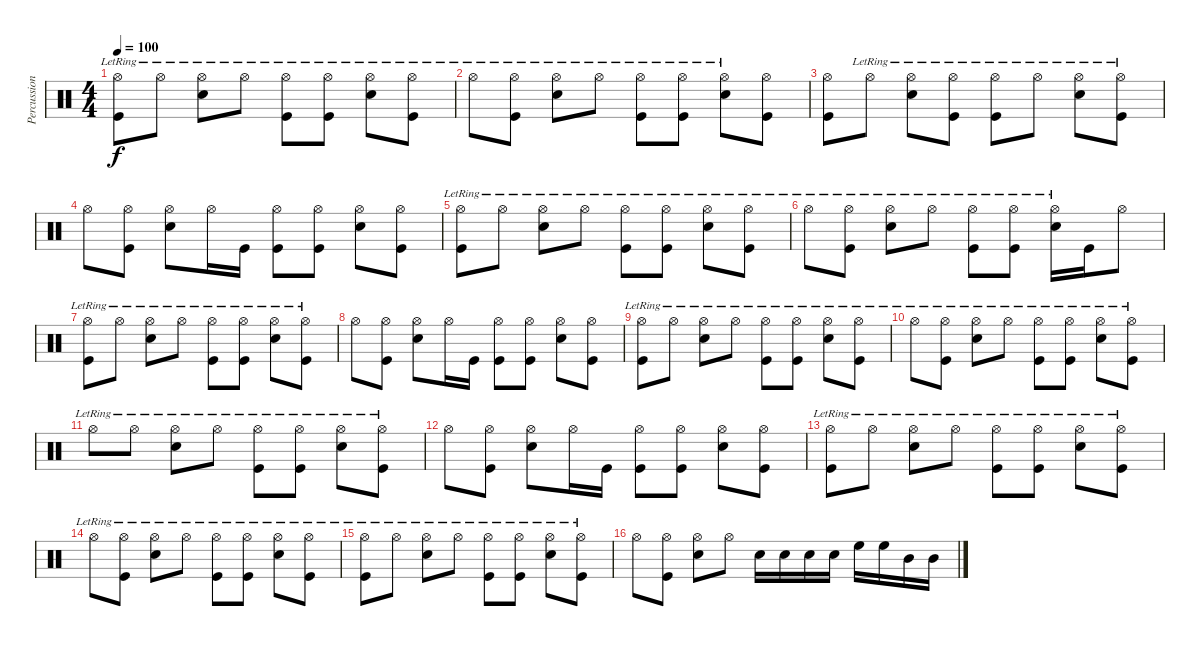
\track ("Percussion" "Percussion") {instrument percussion}
\staff {score}
\articulation defaults
\ts (4 4)
\tempo 100
\clef neutral
\ks c
("Hi-Hat (open)"{lr} "Kick (hit)").8{dy f} "Hi-Hat (open)"{lr}.8 ("Hi-Hat (open)"{lr} "Electric Snare (hit)").8 "Hi-Hat (open)"{lr}.8 ("Hi-Hat (open)"{lr} "Kick (hit)").8 ("Hi-Hat (open)"{lr} "Kick (hit)").8 ("Hi-Hat (open)"{lr} "Electric Snare (hit)").8 ("Hi-Hat (open)"{lr} "Kick (hit)").8 |
"Hi-Hat (open)"{lr}.8 ("Hi-Hat (open)"{lr} "Kick (hit)").8 ("Hi-Hat (open)"{lr} "Electric Snare (hit)").8 "Hi-Hat (open)"{lr}.8 ("Hi-Hat (open)"{lr} "Kick (hit)").8 ("Hi-Hat (open)"{lr} "Kick (hit)").8 ("Hi-Hat (open)"{lr} "Electric Snare (hit)").8 ("Hi-Hat (open)" "Kick (hit)").8 |
("Hi-Hat (open)" "Kick (hit)").8 "Hi-Hat (open)"{lr}.8 ("Hi-Hat (open)"{lr} "Electric Snare (hit)").8 ("Hi-Hat (open)"{lr} "Kick (hit)").8 ("Hi-Hat (open)"{lr} "Kick (hit)").8 "Hi-Hat (open)"{lr}.8 ("Hi-Hat (open)"{lr} "Electric Snare (hit)").8 ("Hi-Hat (open)"{lr} "Kick (hit)").8 |
"Hi-Hat (open)".8 ("Hi-Hat (open)" "Kick (hit)").8 ("Hi-Hat (open)" "Electric Snare (hit)").8 "Hi-Hat (open)".16 "Kick (hit)".16 ("Hi-Hat (open)" "Kick (hit)").8 ("Hi-Hat (open)" "Kick (hit)").8 ("Hi-Hat (open)" "Electric Snare (hit)").8 ("Hi-Hat (open)" "Kick (hit)").8 |
("Hi-Hat (open)"{lr} "Kick (hit)").8 "Hi-Hat (open)"{lr}.8 ("Hi-Hat (open)"{lr} "Electric Snare (hit)").8 "Hi-Hat (open)"{lr}.8 ("Hi-Hat (open)"{lr} "Kick (hit)").8 ("Hi-Hat (open)"{lr} "Kick (hit)").8 ("Hi-Hat (open)"{lr} "Electric Snare (hit)").8 ("Hi-Hat (open)"{lr} "Kick (hit)").8 |
"Hi-Hat (open)"{lr}.8 ("Hi-Hat (open)"{lr} "Kick (hit)").8 ("Hi-Hat (open)"{lr} "Electric Snare (hit)").8 "Hi-Hat (open)"{lr}.8 ("Hi-Hat (open)"{lr} "Kick (hit)").8 ("Hi-Hat (open)"{lr} "Kick (hit)").8 ("Hi-Hat (open)"{lr} "Electric Snare (hit)").16 "Kick (hit)".16 "Hi-Hat (open)".8 |
("Hi-Hat (open)"{lr} "Kick (hit)").8 "Hi-Hat (open)"{lr}.8 ("Hi-Hat (open)"{lr} "Electric Snare (hit)").8 "Hi-Hat (open)"{lr}.8 ("Hi-Hat (open)"{lr} "Kick (hit)").8 ("Hi-Hat (open)"{lr} "Kick (hit)").8 ("Hi-Hat (open)"{lr} "Electric Snare (hit)").8 ("Hi-Hat (open)"{lr} "Kick (hit)").8 |
"Hi-Hat (open)".8 ("Hi-Hat (open)" "Kick (hit)").8 ("Hi-Hat (open)" "Electric Snare (hit)").8 "Hi-Hat (open)".16 "Kick (hit)".16 ("Hi-Hat (open)" "Kick (hit)").8 ("Hi-Hat (open)" "Kick (hit)").8 ("Hi-Hat (open)" "Electric Snare (hit)").8 ("Hi-Hat (open)" "Kick (hit)").8 |
("Hi-Hat (open)"{lr} "Kick (hit)").8 "Hi-Hat (open)"{lr}.8 ("Hi-Hat (open)"{lr} "Electric Snare (hit)").8 "Hi-Hat (open)"{lr}.8 ("Hi-Hat (open)"{lr} "Kick (hit)").8 ("Hi-Hat (open)"{lr} "Kick (hit)").8 ("Hi-Hat (open)"{lr} "Electric Snare (hit)").8 ("Hi-Hat (open)"{lr} "Kick (hit)").8 |
"Hi-Hat (open)"{lr}.8 ("Hi-Hat (open)"{lr} "Kick (hit)").8 ("Hi-Hat (open)"{lr} "Electric Snare (hit)").8 "Hi-Hat (open)"{lr}.8 ("Hi-Hat (open)"{lr} "Kick (hit)").8 ("Hi-Hat (open)"{lr} "Kick (hit)").8 ("Hi-Hat (open)"{lr} "Electric Snare (hit)").8 ("Hi-Hat (open)"{lr} "Kick (hit)").8 |
"Hi-Hat (open)"{lr}.8 "Hi-Hat (open)"{lr}.8 ("Hi-Hat (open)"{lr} "Electric Snare (hit)").8 "Hi-Hat (open)"{lr}.8 ("Hi-Hat (open)"{lr} "Kick (hit)").8 ("Hi-Hat (open)"{lr} "Kick (hit)").8 ("Hi-Hat (open)"{lr} "Electric Snare (hit)").8 ("Hi-Hat (open)"{lr} "Kick (hit)").8 |
"Hi-Hat (open)".8 ("Hi-Hat (open)" "Kick (hit)").8 ("Hi-Hat (open)" "Electric Snare (hit)").8 "Hi-Hat (open)".16 "Kick (hit)".16 ("Hi-Hat (open)" "Kick (hit)").8 ("Hi-Hat (open)" "Kick (hit)").8 ("Hi-Hat (open)" "Electric Snare (hit)").8 ("Hi-Hat (open)" "Kick (hit)").8 |
("Hi-Hat (open)"{lr} "Kick (hit)").8 "Hi-Hat (open)"{lr}.8 ("Hi-Hat (open)"{lr} "Electric Snare (hit)").8 "Hi-Hat (open)"{lr}.8 ("Hi-Hat (open)"{lr} "Kick (hit)").8 ("Hi-Hat (open)"{lr} "Kick (hit)").8 ("Hi-Hat (open)"{lr} "Electric Snare (hit)").8 ("Hi-Hat (open)"{lr} "Kick (hit)").8 |
"Hi-Hat (open)"{lr}.8 ("Hi-Hat (open)"{lr} "Kick (hit)").8 ("Hi-Hat (open)"{lr} "Electric Snare (hit)").8 "Hi-Hat (open)"{lr}.8 ("Hi-Hat (open)"{lr} "Kick (hit)").8 ("Hi-Hat (open)"{lr} "Kick (hit)").8 ("Hi-Hat (open)"{lr} "Electric Snare (hit)").8 ("Hi-Hat (open)"{lr} "Kick (hit)").8 |
("Hi-Hat (open)"{lr} "Kick (hit)").8 "Hi-Hat (open)"{lr}.8 ("Hi-Hat (open)"{lr} "Electric Snare (hit)").8 "Hi-Hat (open)"{lr}.8 ("Hi-Hat (open)"{lr} "Kick (hit)").8 ("Hi-Hat (open)"{lr} "Kick (hit)").8 ("Hi-Hat (open)"{lr} "Electric Snare (hit)").8 ("Hi-Hat (open)"{lr} "Kick (hit)").8 |
"Hi-Hat (open)".8 ("Hi-Hat (open)" "Kick (hit)").8 ("Hi-Hat (open)" "Electric Snare (hit)").8 "Hi-Hat (open)".8 "Electric Snare (hit)".16 "Electric Snare (hit)".16 "Electric Snare (hit)".16 "Electric Snare (hit)".16 "High Floor Tom (hit)".16 "High Floor Tom (hit)".16 "Mid Tom (hit)".16 "Mid Tom (hit)".16
